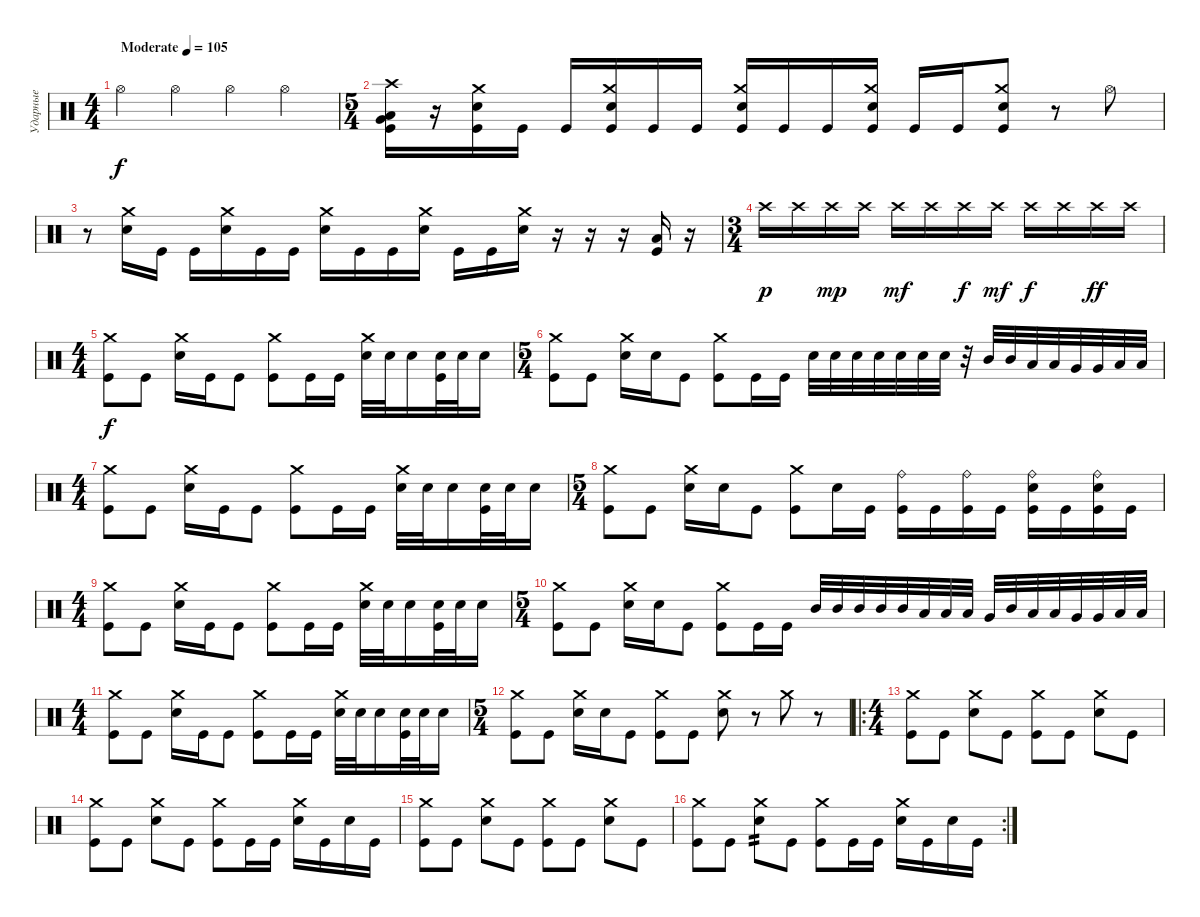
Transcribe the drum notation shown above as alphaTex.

\track ("Ударные" "Ударные") {instrument percussion}
\staff {score}
\articulation defaults
\ts (4 4)
\tempo (105 "Moderate")
\clef neutral
\ks c "Hi-Hat (open)".4{dy f} "Hi-Hat (open)".4 "Hi-Hat (open)".4 "Hi-Hat (open)".4
|
\ts (5 4)
("Crash high (hit)" "Very Low Tom (hit)" "Low Floor Tom (hit)" "Kick (hit)").16 r.16 ("Crash medium (hit)" "Electric Snare (hit)" "Kick (hit)").16 "Kick (hit)".16 "Kick (hit)".16 ("Crash medium (hit)" "Electric Snare (hit)" "Kick (hit)").16 "Kick (hit)".16 "Kick (hit)".16 ("Crash medium (hit)" "Electric Snare (hit)" "Kick (hit)").16 "Kick (hit)".16 "Kick (hit)".16 ("Crash medium (hit)" "Electric Snare (hit)" "Kick (hit)").16 "Kick (hit)".16 "Kick (hit)".16 ("Crash medium (hit)" "Electric Snare (hit)" "Kick (hit)").8 r.8 "Hi-Hat (open)".8 |
r.8 ("Crash medium (hit)" "Electric Snare (hit)").16 "Kick (hit)".16 "Kick (hit)".16 ("Crash medium (hit)" "Electric Snare (hit)").16 "Kick (hit)".16 "Kick (hit)".16 ("Crash medium (hit)" "Electric Snare (hit)").16 "Kick (hit)".16 "Kick (hit)".16 ("Crash medium (hit)" "Electric Snare (hit)").16 "Kick (hit)".16 "Kick (hit)".16 ("Crash medium (hit)" "Electric Snare (hit)").16 r.16 r.16 r.16 ("Kick (hit)" "Low Floor Tom (hit)").16 r.16 |
\ts (3 4)
"Crash high (hit)".16{dy p volume 2} "Crash high (hit)".16{volume 3} "Crash high (hit)".16{dy mp volume 4} "Crash high (hit)".16 "Crash high (hit)".16{dy mf volume 5} "Crash high (hit)".16 "Crash high (hit)".16{dy f volume 8} "Crash high (hit)".16{dy mf} "Crash high (hit)".16{dy f volume 11} "Crash high (hit)".16 "Crash high (hit)".16{dy ff volume 12} "Crash high (hit)".16 |
\ts (4 4)
("Crash medium (hit)" "Kick (hit)").8{dy f volume 16} "Kick (hit)".8 ("Crash medium (hit)" "Electric Snare (hit)").16 "Kick (hit)".16 "Kick (hit)".8 ("Crash medium (hit)" "Kick (hit)").8 "Kick (hit)".16 "Kick (hit)".16 ("Crash medium (hit)" "Electric Snare (hit)").32 "Electric Snare (hit)".32 "Electric Snare (hit)".16 ("Electric Snare (hit)" "Kick (hit)").32 "Electric Snare (hit)".32 "Electric Snare (hit)".16 |
\ts (5 4)
("Crash medium (hit)" "Kick (hit)").8 "Kick (hit)".8 ("Crash medium (hit)" "Electric Snare (hit)").16 "Electric Snare (hit)".16 "Kick (hit)".8 ("Crash medium (hit)" "Kick (hit)").8 "Kick (hit)".16 "Kick (hit)".16 "Electric Snare (hit)".32 "Electric Snare (hit)".32 "Electric Snare (hit)".32 "Electric Snare (hit)".32 "Electric Snare (hit)".32 "Electric Snare (hit)".32 "Electric Snare (hit)".32 r.32 "Mid Tom (hit)".32 "Mid Tom (hit)".32 "Low Tom (hit)".32 "Low Tom (hit)".32 "Very Low Tom (hit)".32 "Very Low Tom (hit)".32 "Low Floor Tom (hit)".32 "Low Floor Tom (hit)".32 |
\ts (4 4)
("Crash medium (hit)" "Kick (hit)").8{volume 16} "Kick (hit)".8 ("Crash medium (hit)" "Electric Snare (hit)").16 "Kick (hit)".16 "Kick (hit)".8 ("Crash medium (hit)" "Kick (hit)").8 "Kick (hit)".16 "Kick (hit)".16 ("Crash medium (hit)" "Electric Snare (hit)").32 "Electric Snare (hit)".32 "Electric Snare (hit)".16 ("Electric Snare (hit)" "Kick (hit)").32 "Electric Snare (hit)".32 "Electric Snare (hit)".16 |
\ts (5 4)
("Crash medium (hit)" "Kick (hit)").8 "Kick (hit)".8 ("Crash medium (hit)" "Electric Snare (hit)").16 "Electric Snare (hit)".16 "Kick (hit)".8 ("Crash medium (hit)" "Kick (hit)").8 "Electric Snare (hit)".16 "Kick (hit)".16 ("Ride (bell)" "Kick (hit)").16 "Kick (hit)".16 ("Ride (bell)" "Kick (hit)").16 "Kick (hit)".16 ("Ride (bell)" "Electric Snare (hit)" "Kick (hit)").16 "Kick (hit)".16 ("Ride (bell)" "Electric Snare (hit)" "Kick (hit)").16 "Kick (hit)".16 |
\ts (4 4)
("Crash medium (hit)" "Kick (hit)").8{volume 16} "Kick (hit)".8 ("Crash medium (hit)" "Electric Snare (hit)").16 "Kick (hit)".16 "Kick (hit)".8 ("Crash medium (hit)" "Kick (hit)").8 "Kick (hit)".16 "Kick (hit)".16 ("Crash medium (hit)" "Electric Snare (hit)").32 "Electric Snare (hit)".32 "Electric Snare (hit)".16 ("Electric Snare (hit)" "Kick (hit)").32 "Electric Snare (hit)".32 "Electric Snare (hit)".16 |
\ts (5 4)
("Crash medium (hit)" "Kick (hit)").8 "Kick (hit)".8 ("Crash medium (hit)" "Electric Snare (hit)").16 "Electric Snare (hit)".16 "Kick (hit)".8 ("Crash medium (hit)" "Kick (hit)").8 "Kick (hit)".16 "Kick (hit)".16 "Mid Tom (hit)".32 "Mid Tom (hit)".32 "Mid Tom (hit)".32 "Mid Tom (hit)".32 "Mid Tom (hit)".32 "Low Tom (hit)".32 "Low Tom (hit)".32 "Low Tom (hit)".32 "Very Low Tom (hit)".32 "Mid Tom (hit)".32 "Low Tom (hit)".32 "Low Tom (hit)".32 "Very Low Tom (hit)".32 "Very Low Tom (hit)".32 "Low Floor Tom (hit)".32 "Low Floor Tom (hit)".32 |
\ts (4 4)
("Crash medium (hit)" "Kick (hit)").8{volume 16} "Kick (hit)".8 ("Crash medium (hit)" "Electric Snare (hit)").16 "Kick (hit)".16 "Kick (hit)".8 ("Crash medium (hit)" "Kick (hit)").8 "Kick (hit)".16 "Kick (hit)".16 ("Crash medium (hit)" "Electric Snare (hit)").32 "Electric Snare (hit)".32 "Electric Snare (hit)".16 ("Electric Snare (hit)" "Kick (hit)").32 "Electric Snare (hit)".32 "Electric Snare (hit)".16 |
\ts (5 4)
("Crash medium (hit)" "Kick (hit)").8 "Kick (hit)".8 ("Crash medium (hit)" "Electric Snare (hit)").16 "Electric Snare (hit)".16 "Kick (hit)".8 ("Crash medium (hit)" "Kick (hit)").8 "Kick (hit)".8 ("Crash medium (hit)" "Electric Snare (hit)").8 r.8 "Crash medium (hit)".8 r.8 |
\ro
\ts (4 4)
("Crash medium (hit)" "Kick (hit)").8 "Kick (hit)".8 ("Crash medium (hit)" "Electric Snare (hit)").8 "Kick (hit)".8 ("Crash medium (hit)" "Kick (hit)").8 "Kick (hit)".8 ("Crash medium (hit)" "Electric Snare (hit)").8 "Kick (hit)".8 |
("Crash medium (hit)" "Kick (hit)").8 "Kick (hit)".8 ("Crash medium (hit)" "Electric Snare (hit)").8 "Kick (hit)".8 ("Crash medium (hit)" "Kick (hit)").8 "Kick (hit)".16 "Kick (hit)".16 ("Crash medium (hit)" "Electric Snare (hit)").16 "Kick (hit)".16 "Electric Snare (hit)".16 "Kick (hit)".16 |
("Crash medium (hit)" "Kick (hit)").8 "Kick (hit)".8 ("Crash medium (hit)" "Electric Snare (hit)").8 "Kick (hit)".8 ("Crash medium (hit)" "Kick (hit)").8 "Kick (hit)".8 ("Crash medium (hit)" "Electric Snare (hit)").8 "Kick (hit)".8 |
\rc 2
("Crash medium (hit)" "Kick (hit)").8 "Kick (hit)".8 ("Crash medium (hit)" "Electric Snare (hit)").8{tp 2} "Kick (hit)".8 ("Crash medium (hit)" "Kick (hit)").8 "Kick (hit)".16 "Kick (hit)".16 ("Crash medium (hit)" "Electric Snare (hit)").16 "Kick (hit)".16 "Electric Snare (hit)".16 "Kick (hit)".16
